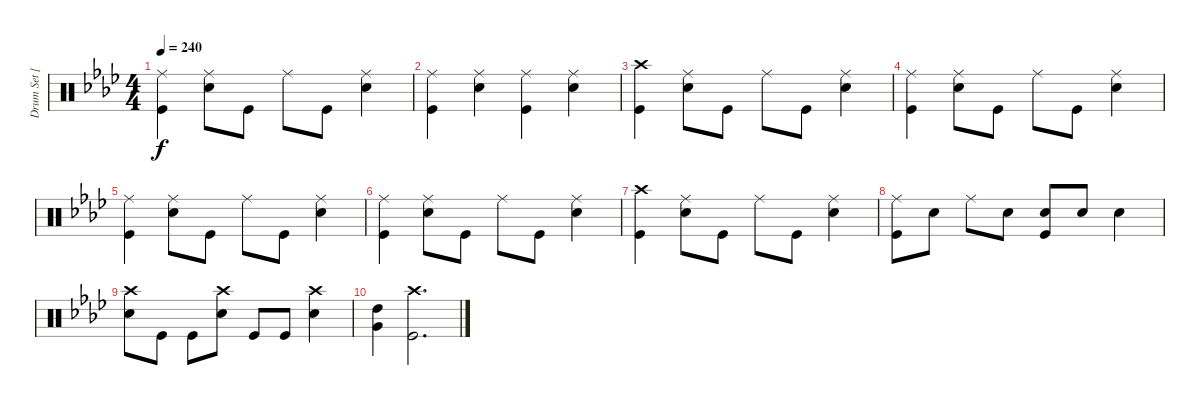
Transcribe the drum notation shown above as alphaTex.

\track ("Drum Set [Ritsu]" "Drum Set [") {instrument percussion}
\staff {score}
\articulation defaults
\ts (4 4)
\tempo 240
\clef neutral
\ks ab
("Ride (middle)" "Kick (hit)").4{dy f} ("Ride (middle)" "Snare (hit) 2").8 "Kick (hit)".8 "Ride (middle)".8 "Kick (hit)".8 ("Ride (middle)" "Snare (hit) 2").4 |
("Ride (middle)" "Kick (hit)").4 ("Ride (middle)" "Snare (hit) 2").4 ("Ride (middle)" "Kick (hit)").4 ("Ride (middle)" "Snare (hit) 2").4 |
("Crash high (hit)" "Kick (hit)").4 ("Ride (middle)" "Snare (hit) 2").8 "Kick (hit)".8 "Ride (middle)".8 "Kick (hit)".8 ("Ride (middle)" "Snare (hit) 2").4 |
("Ride (middle)" "Kick (hit)").4 ("Ride (middle)" "Snare (hit) 2").8 "Kick (hit)".8 "Ride (middle)".8 "Kick (hit)".8 ("Ride (middle)" "Snare (hit) 2").4 |
("Ride (middle)" "Kick (hit)").4 ("Ride (middle)" "Snare (hit) 2").8 "Kick (hit)".8 "Ride (middle)".8 "Kick (hit)".8 ("Ride (middle)" "Snare (hit) 2").4 |
("Ride (middle)" "Kick (hit)").4 ("Ride (middle)" "Snare (hit) 2").8 "Kick (hit)".8 "Ride (middle)".8 "Kick (hit)".8 ("Ride (middle)" "Snare (hit) 2").4 |
("Crash high (hit)" "Kick (hit)").4 ("Ride (middle)" "Snare (hit) 2").8 "Kick (hit)".8 "Ride (middle)".8 "Kick (hit)".8 ("Ride (middle)" "Snare (hit) 2").4 |
("Ride (middle)" "Kick (hit)").8 "Snare (hit) 2".8 "Ride (middle)".8 "Snare (hit) 2".8 ("Snare (hit) 2" "Kick (hit)").8 "Snare (hit) 2".8 "Snare (hit) 2".4 |
("Crash high (hit)" "Snare (hit) 2").8 "Kick (hit)".8 "Kick (hit)".8 ("Crash high (hit)" "Snare (hit) 2").8 "Kick (hit)".8 "Kick (hit)".8 ("Crash high (hit)" "Snare (hit) 2").4 |
("High Tom (hit)" "Very Low Tom (hit)").4 ("Crash high (hit)" "Kick (hit)").2{d}
